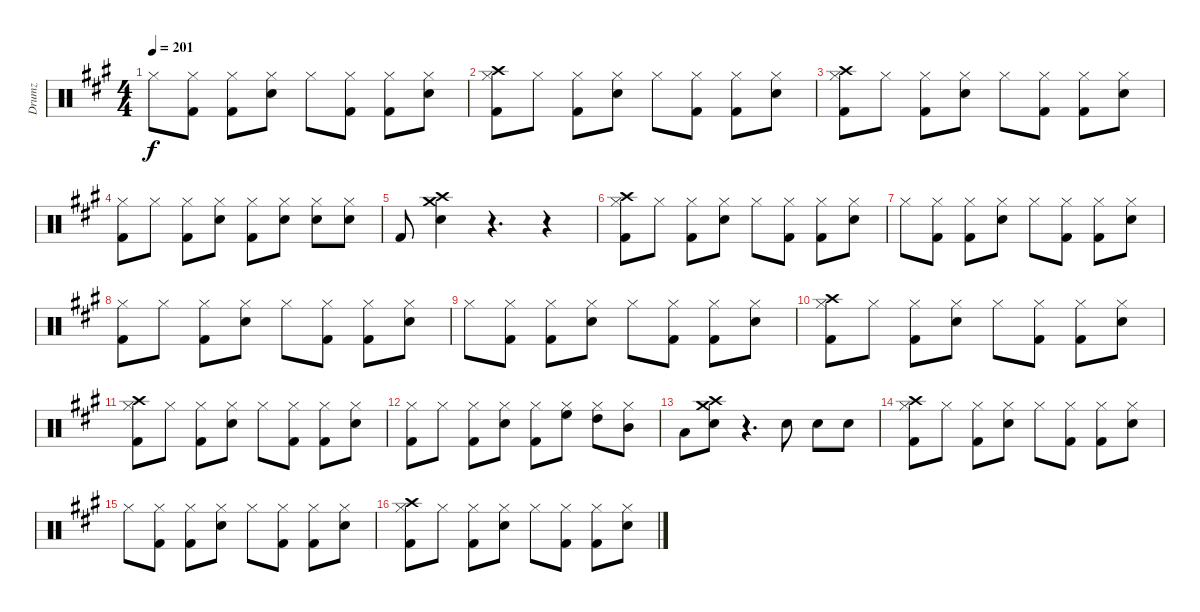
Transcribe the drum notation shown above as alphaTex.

\track ("Drumz" "Drumz") {instrument percussion}
\staff {score}
\articulation defaults
\ts (4 4)
\tempo 201
\clef neutral
\ks a "Hi-Hat (closed)".8{dy f}
("Hi-Hat (closed)" "Kick (hit) 2").8 ("Hi-Hat (closed)" "Kick (hit) 2").8 ("Hi-Hat (closed)" "Snare (hit) 2").8 "Hi-Hat (closed)".8 ("Hi-Hat (closed)" "Kick (hit) 2").8 ("Hi-Hat (closed)" "Kick (hit) 2").8 ("Hi-Hat (closed)" "Snare (hit) 2").8 |
("Hi-Hat (closed)" "Kick (hit) 2" "Crash high (hit)").8 "Hi-Hat (closed)".8 ("Hi-Hat (closed)" "Kick (hit) 2").8 ("Hi-Hat (closed)" "Snare (hit) 2").8 "Hi-Hat (closed)".8 ("Hi-Hat (closed)" "Kick (hit) 2").8 ("Hi-Hat (closed)" "Kick (hit) 2").8 ("Hi-Hat (closed)" "Snare (hit) 2").8 |
("Hi-Hat (closed)" "Kick (hit) 2" "Crash high (hit)").8 "Hi-Hat (closed)".8 ("Hi-Hat (closed)" "Kick (hit) 2").8 ("Hi-Hat (closed)" "Snare (hit) 2").8 "Hi-Hat (closed)".8 ("Hi-Hat (closed)" "Kick (hit) 2").8 ("Hi-Hat (closed)" "Kick (hit) 2").8 ("Hi-Hat (closed)" "Snare (hit) 2").8 |
("Hi-Hat (closed)" "Kick (hit) 2").8 "Hi-Hat (closed)".8 ("Hi-Hat (closed)" "Kick (hit) 2").8 ("Hi-Hat (closed)" "Snare (hit) 2").8 ("Hi-Hat (closed)" "Kick (hit) 2").8 ("Hi-Hat (closed)" "Snare (hit) 2").8 ("Hi-Hat (closed)" "Snare (hit) 2").8 ("Hi-Hat (closed)" "Snare (hit) 2").8 |
"Kick (hit) 2".8 ("Snare (hit) 2" "Crash high (hit)" "Crash medium (hit)").4 r.4{d} r.4 |
("Hi-Hat (closed)" "Kick (hit) 2" "Crash high (hit)").8 "Hi-Hat (closed)".8 ("Hi-Hat (closed)" "Kick (hit) 2").8 ("Hi-Hat (closed)" "Snare (hit) 2").8 "Hi-Hat (closed)".8 ("Hi-Hat (closed)" "Kick (hit) 2").8 ("Hi-Hat (closed)" "Kick (hit) 2").8 ("Hi-Hat (closed)" "Snare (hit) 2").8 |
"Hi-Hat (closed)".8 ("Hi-Hat (closed)" "Kick (hit) 2").8 ("Hi-Hat (closed)" "Kick (hit) 2").8 ("Hi-Hat (closed)" "Snare (hit) 2").8 "Hi-Hat (closed)".8 ("Hi-Hat (closed)" "Kick (hit) 2").8 ("Hi-Hat (closed)" "Kick (hit) 2").8 ("Hi-Hat (closed)" "Snare (hit) 2").8 |
("Hi-Hat (closed)" "Kick (hit) 2").8 "Hi-Hat (closed)".8 ("Hi-Hat (closed)" "Kick (hit) 2").8 ("Hi-Hat (closed)" "Snare (hit) 2").8 "Hi-Hat (closed)".8 ("Hi-Hat (closed)" "Kick (hit) 2").8 ("Hi-Hat (closed)" "Kick (hit) 2").8 ("Hi-Hat (closed)" "Snare (hit) 2").8 |
"Hi-Hat (closed)".8 ("Hi-Hat (closed)" "Kick (hit) 2").8 ("Hi-Hat (closed)" "Kick (hit) 2").8 ("Hi-Hat (closed)" "Snare (hit) 2").8 "Hi-Hat (closed)".8 ("Hi-Hat (closed)" "Kick (hit) 2").8 ("Hi-Hat (closed)" "Kick (hit) 2").8 ("Hi-Hat (closed)" "Snare (hit) 2").8 |
("Hi-Hat (closed)" "Kick (hit) 2" "Crash high (hit)").8 "Hi-Hat (closed)".8 ("Hi-Hat (closed)" "Kick (hit) 2").8 ("Hi-Hat (closed)" "Snare (hit) 2").8 "Hi-Hat (closed)".8 ("Hi-Hat (closed)" "Kick (hit) 2").8 ("Hi-Hat (closed)" "Kick (hit) 2").8 ("Hi-Hat (closed)" "Snare (hit) 2").8 |
("Hi-Hat (closed)" "Kick (hit) 2" "Crash high (hit)").8 "Hi-Hat (closed)".8 ("Hi-Hat (closed)" "Kick (hit) 2").8 ("Hi-Hat (closed)" "Snare (hit) 2").8 "Hi-Hat (closed)".8 ("Hi-Hat (closed)" "Kick (hit) 2").8 ("Hi-Hat (closed)" "Kick (hit) 2").8 ("Hi-Hat (closed)" "Snare (hit) 2").8 |
("Hi-Hat (closed)" "Kick (hit) 2").8 "Hi-Hat (closed)".8 ("Hi-Hat (closed)" "Kick (hit) 2").8 ("Hi-Hat (closed)" "Snare (hit) 2").8 ("Hi-Hat (closed)" "Kick (hit) 2").8 ("Hi-Hat (closed)" "High Floor Tom (hit)").8 ("Hi-Hat (closed)" "High Tom (hit)").8 ("Hi-Hat (closed)" "Mid Tom (hit)").8 |
"Low Tom (hit)".8 ("Snare (hit) 2" "Crash high (hit)" "Crash medium (hit)").8 r.4{d} "Snare (hit) 2".8 "Snare (hit) 2".8 "Snare (hit) 2".8 |
("Hi-Hat (closed)" "Kick (hit) 2" "Crash high (hit)").8 "Hi-Hat (closed)".8 ("Hi-Hat (closed)" "Kick (hit) 2").8 ("Hi-Hat (closed)" "Snare (hit) 2").8 "Hi-Hat (closed)".8 ("Hi-Hat (closed)" "Kick (hit) 2").8 ("Hi-Hat (closed)" "Kick (hit) 2").8 ("Hi-Hat (closed)" "Snare (hit) 2").8 |
"Hi-Hat (closed)".8 ("Hi-Hat (closed)" "Kick (hit) 2").8 ("Hi-Hat (closed)" "Kick (hit) 2").8 ("Hi-Hat (closed)" "Snare (hit) 2").8 "Hi-Hat (closed)".8 ("Hi-Hat (closed)" "Kick (hit) 2").8 ("Hi-Hat (closed)" "Kick (hit) 2").8 ("Hi-Hat (closed)" "Snare (hit) 2").8 |
("Hi-Hat (closed)" "Kick (hit) 2" "Crash high (hit)").8 "Hi-Hat (closed)".8 ("Hi-Hat (closed)" "Kick (hit) 2").8 ("Hi-Hat (closed)" "Snare (hit) 2").8 "Hi-Hat (closed)".8 ("Hi-Hat (closed)" "Kick (hit) 2").8 ("Hi-Hat (closed)" "Kick (hit) 2").8 ("Hi-Hat (closed)" "Snare (hit) 2").8
